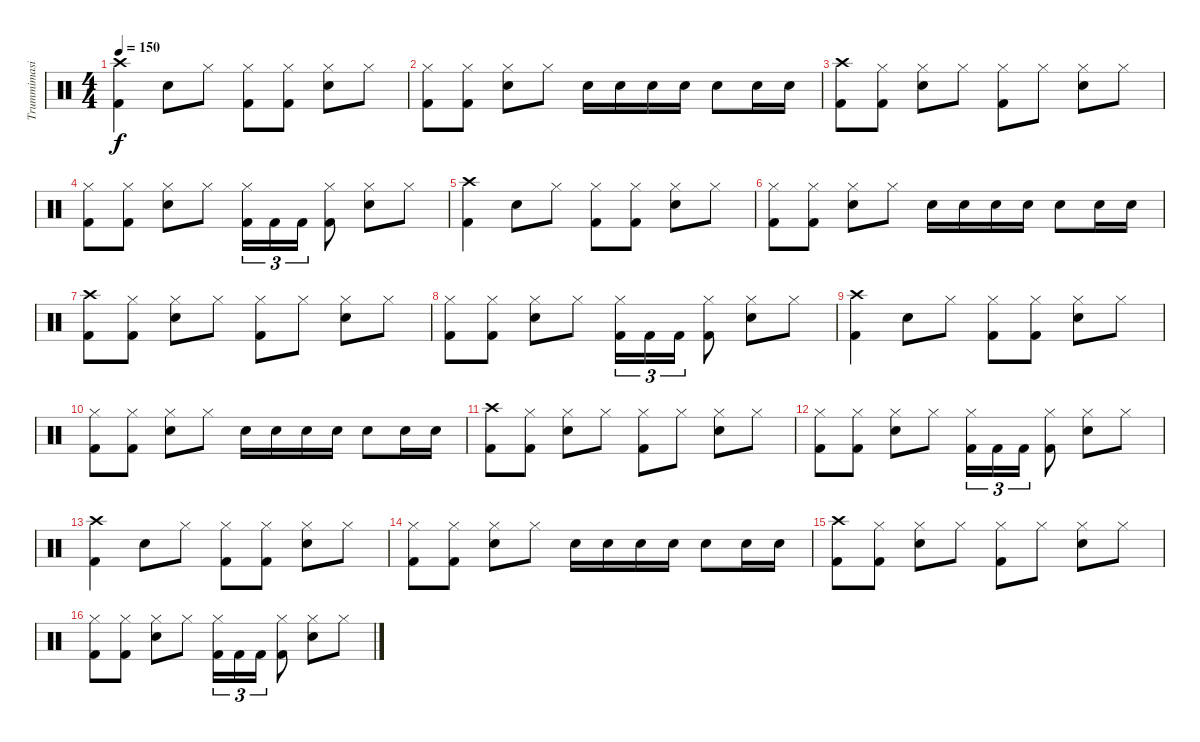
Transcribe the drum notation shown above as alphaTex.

\track ("Trummimasin" "Trummimasi") {instrument percussion}
\staff {score}
\articulation defaults
\ts (4 4)
\tempo 150
\clef neutral
\ks c
("Crash high (hit)" "Kick (hit) 2").4{dy f} "Snare (hit) 2".8 "Hi-Hat (closed)".8 ("Hi-Hat (closed)" "Kick (hit) 2").8 ("Hi-Hat (closed)" "Kick (hit) 2").8 ("Hi-Hat (closed)" "Snare (hit) 2").8 "Hi-Hat (closed)".8 |
("Hi-Hat (closed)" "Kick (hit) 2").8 ("Hi-Hat (closed)" "Kick (hit) 2").8 ("Hi-Hat (closed)" "Snare (hit) 2").8 "Hi-Hat (closed)".8 "Snare (hit) 2".16 "Snare (hit) 2".16 "Snare (hit) 2".16 "Snare (hit) 2".16 "Snare (hit) 2".8 "Snare (hit) 2".16 "Snare (hit) 2".16 |
("Crash high (hit)" "Kick (hit) 2").8 ("Hi-Hat (closed)" "Kick (hit) 2").8 ("Hi-Hat (closed)" "Snare (hit) 2").8 "Hi-Hat (closed)".8 ("Hi-Hat (closed)" "Kick (hit) 2").8 "Hi-Hat (closed)".8 ("Hi-Hat (closed)" "Snare (hit) 2").8 "Hi-Hat (closed)".8 |
("Hi-Hat (closed)" "Kick (hit) 2").8 ("Hi-Hat (closed)" "Kick (hit) 2").8 ("Hi-Hat (closed)" "Snare (hit) 2").8 "Hi-Hat (closed)".8 ("Hi-Hat (closed)" "Kick (hit) 2").16{tu (3 2)} "Kick (hit) 2".16{tu (3 2)} "Kick (hit) 2".16{tu (3 2)} ("Hi-Hat (closed)" "Kick (hit) 2").8 ("Hi-Hat (closed)" "Snare (hit) 2").8 "Hi-Hat (closed)".8 |
("Crash high (hit)" "Kick (hit) 2").4 "Snare (hit) 2".8 "Hi-Hat (closed)".8 ("Hi-Hat (closed)" "Kick (hit) 2").8 ("Hi-Hat (closed)" "Kick (hit) 2").8 ("Hi-Hat (closed)" "Snare (hit) 2").8 "Hi-Hat (closed)".8 |
("Hi-Hat (closed)" "Kick (hit) 2").8 ("Hi-Hat (closed)" "Kick (hit) 2").8 ("Hi-Hat (closed)" "Snare (hit) 2").8 "Hi-Hat (closed)".8 "Snare (hit) 2".16 "Snare (hit) 2".16 "Snare (hit) 2".16 "Snare (hit) 2".16 "Snare (hit) 2".8 "Snare (hit) 2".16 "Snare (hit) 2".16 |
("Crash high (hit)" "Kick (hit) 2").8 ("Hi-Hat (closed)" "Kick (hit) 2").8 ("Hi-Hat (closed)" "Snare (hit) 2").8 "Hi-Hat (closed)".8 ("Hi-Hat (closed)" "Kick (hit) 2").8 "Hi-Hat (closed)".8 ("Hi-Hat (closed)" "Snare (hit) 2").8 "Hi-Hat (closed)".8 |
("Hi-Hat (closed)" "Kick (hit) 2").8 ("Hi-Hat (closed)" "Kick (hit) 2").8 ("Hi-Hat (closed)" "Snare (hit) 2").8 "Hi-Hat (closed)".8 ("Hi-Hat (closed)" "Kick (hit) 2").16{tu (3 2)} "Kick (hit) 2".16{tu (3 2)} "Kick (hit) 2".16{tu (3 2)} ("Hi-Hat (closed)" "Kick (hit) 2").8 ("Hi-Hat (closed)" "Snare (hit) 2").8 "Hi-Hat (closed)".8 |
("Crash high (hit)" "Kick (hit) 2").4 "Snare (hit) 2".8 "Hi-Hat (closed)".8 ("Hi-Hat (closed)" "Kick (hit) 2").8 ("Hi-Hat (closed)" "Kick (hit) 2").8 ("Hi-Hat (closed)" "Snare (hit) 2").8 "Hi-Hat (closed)".8 |
("Hi-Hat (closed)" "Kick (hit) 2").8 ("Hi-Hat (closed)" "Kick (hit) 2").8 ("Hi-Hat (closed)" "Snare (hit) 2").8 "Hi-Hat (closed)".8 "Snare (hit) 2".16 "Snare (hit) 2".16 "Snare (hit) 2".16 "Snare (hit) 2".16 "Snare (hit) 2".8 "Snare (hit) 2".16 "Snare (hit) 2".16 |
("Crash high (hit)" "Kick (hit) 2").8 ("Hi-Hat (closed)" "Kick (hit) 2").8 ("Hi-Hat (closed)" "Snare (hit) 2").8 "Hi-Hat (closed)".8 ("Hi-Hat (closed)" "Kick (hit) 2").8 "Hi-Hat (closed)".8 ("Hi-Hat (closed)" "Snare (hit) 2").8 "Hi-Hat (closed)".8 |
("Hi-Hat (closed)" "Kick (hit) 2").8 ("Hi-Hat (closed)" "Kick (hit) 2").8 ("Hi-Hat (closed)" "Snare (hit) 2").8 "Hi-Hat (closed)".8 ("Hi-Hat (closed)" "Kick (hit) 2").16{tu (3 2)} "Kick (hit) 2".16{tu (3 2)} "Kick (hit) 2".16{tu (3 2)} ("Hi-Hat (closed)" "Kick (hit) 2").8 ("Hi-Hat (closed)" "Snare (hit) 2").8 "Hi-Hat (closed)".8 |
("Crash high (hit)" "Kick (hit) 2").4 "Snare (hit) 2".8 "Hi-Hat (closed)".8 ("Hi-Hat (closed)" "Kick (hit) 2").8 ("Hi-Hat (closed)" "Kick (hit) 2").8 ("Hi-Hat (closed)" "Snare (hit) 2").8 "Hi-Hat (closed)".8 |
("Hi-Hat (closed)" "Kick (hit) 2").8 ("Hi-Hat (closed)" "Kick (hit) 2").8 ("Hi-Hat (closed)" "Snare (hit) 2").8 "Hi-Hat (closed)".8 "Snare (hit) 2".16 "Snare (hit) 2".16 "Snare (hit) 2".16 "Snare (hit) 2".16 "Snare (hit) 2".8 "Snare (hit) 2".16 "Snare (hit) 2".16 |
("Crash high (hit)" "Kick (hit) 2").8 ("Hi-Hat (closed)" "Kick (hit) 2").8 ("Hi-Hat (closed)" "Snare (hit) 2").8 "Hi-Hat (closed)".8 ("Hi-Hat (closed)" "Kick (hit) 2").8 "Hi-Hat (closed)".8 ("Hi-Hat (closed)" "Snare (hit) 2").8 "Hi-Hat (closed)".8 |
("Hi-Hat (closed)" "Kick (hit) 2").8 ("Hi-Hat (closed)" "Kick (hit) 2").8 ("Hi-Hat (closed)" "Snare (hit) 2").8 "Hi-Hat (closed)".8 ("Hi-Hat (closed)" "Kick (hit) 2").16{tu (3 2)} "Kick (hit) 2".16{tu (3 2)} "Kick (hit) 2".16{tu (3 2)} ("Hi-Hat (closed)" "Kick (hit) 2").8 ("Hi-Hat (closed)" "Snare (hit) 2").8 "Hi-Hat (closed)".8
